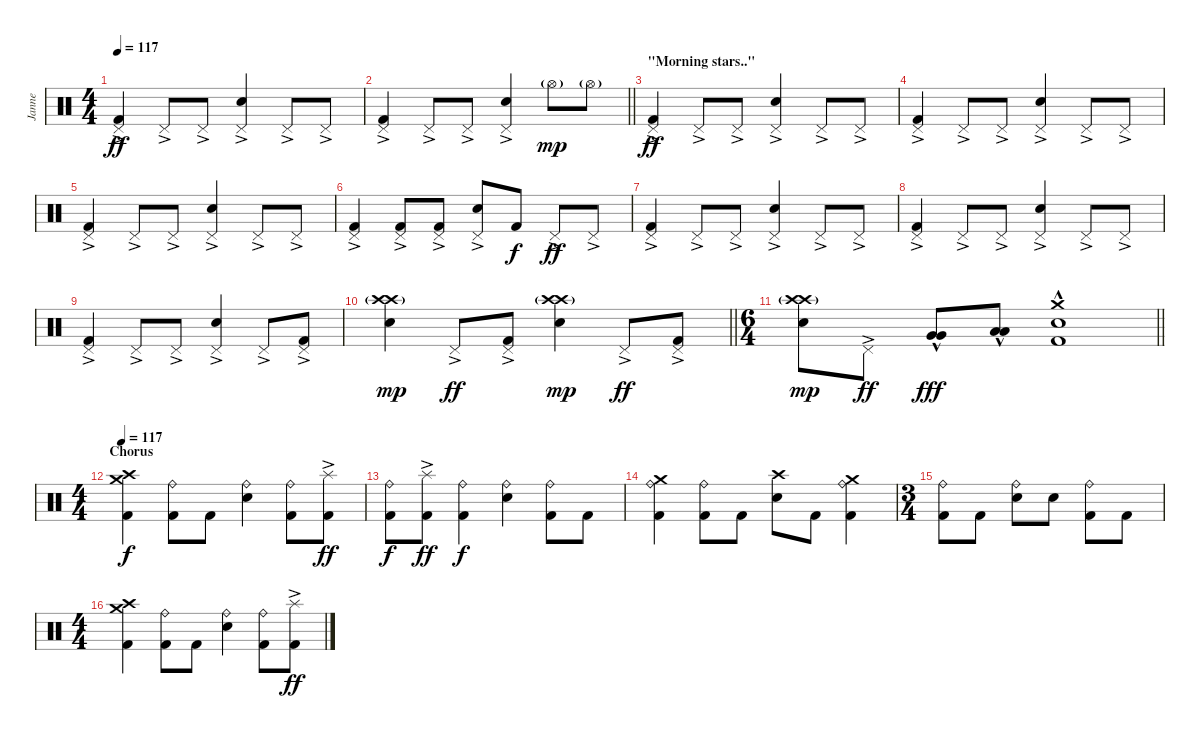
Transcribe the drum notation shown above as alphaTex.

\track ("Janne" "Janne") {instrument percussion}
\staff {score}
\articulation defaults
\ts (4 4)
\tempo 117
\clef neutral
\ks c
("Kick (hit) 2" "Pedal Hi-Hat (hit)"{ac}).4{dy ff} "Pedal Hi-Hat (hit)"{ac}.8 "Pedal Hi-Hat (hit)"{ac}.8 ("Snare (hit) 2" "Pedal Hi-Hat (hit)"{ac}).4 "Pedal Hi-Hat (hit)"{ac}.8 "Pedal Hi-Hat (hit)"{ac}.8 |
\barLineRight lightlight
("Kick (hit) 2" "Pedal Hi-Hat (hit)"{ac}).4 "Pedal Hi-Hat (hit)"{ac}.8 "Pedal Hi-Hat (hit)"{ac}.8 ("Snare (hit) 2" "Pedal Hi-Hat (hit)"{ac}).4 "Hi-Hat (open)"{g}.8{dy mp} "Hi-Hat (open)"{g}.8 |
\section ("" "\"Morning stars..\"")
("Kick (hit) 2" "Pedal Hi-Hat (hit)"{ac}).4{dy ff} "Pedal Hi-Hat (hit)"{ac}.8 "Pedal Hi-Hat (hit)"{ac}.8 ("Snare (hit) 2" "Pedal Hi-Hat (hit)"{ac}).4 "Pedal Hi-Hat (hit)"{ac}.8 "Pedal Hi-Hat (hit)"{ac}.8 |
("Kick (hit) 2" "Pedal Hi-Hat (hit)"{ac}).4 "Pedal Hi-Hat (hit)"{ac}.8 "Pedal Hi-Hat (hit)"{ac}.8 ("Snare (hit) 2" "Pedal Hi-Hat (hit)"{ac}).4 "Pedal Hi-Hat (hit)"{ac}.8 "Pedal Hi-Hat (hit)"{ac}.8 |
("Kick (hit) 2" "Pedal Hi-Hat (hit)"{ac}).4 "Pedal Hi-Hat (hit)"{ac}.8 "Pedal Hi-Hat (hit)"{ac}.8 ("Snare (hit) 2" "Pedal Hi-Hat (hit)"{ac}).4 "Pedal Hi-Hat (hit)"{ac}.8 "Pedal Hi-Hat (hit)"{ac}.8 |
("Kick (hit) 2" "Pedal Hi-Hat (hit)"{ac}).4 ("Kick (hit) 2" "Pedal Hi-Hat (hit)"{ac}).8 ("Kick (hit) 2" "Pedal Hi-Hat (hit)"{ac}).8 ("Snare (hit) 2" "Pedal Hi-Hat (hit)"{ac}).8 "Kick (hit) 2".8{dy f} "Pedal Hi-Hat (hit)"{ac}.8{dy ff} "Pedal Hi-Hat (hit)"{ac}.8 |
("Kick (hit) 2" "Pedal Hi-Hat (hit)"{ac}).4 "Pedal Hi-Hat (hit)"{ac}.8 "Pedal Hi-Hat (hit)"{ac}.8 ("Snare (hit) 2" "Pedal Hi-Hat (hit)"{ac}).4 "Pedal Hi-Hat (hit)"{ac}.8 "Pedal Hi-Hat (hit)"{ac}.8 |
("Kick (hit) 2" "Pedal Hi-Hat (hit)"{ac}).4 "Pedal Hi-Hat (hit)"{ac}.8 "Pedal Hi-Hat (hit)"{ac}.8 ("Snare (hit) 2" "Pedal Hi-Hat (hit)"{ac}).4 "Pedal Hi-Hat (hit)"{ac}.8 "Pedal Hi-Hat (hit)"{ac}.8 |
("Kick (hit) 2" "Pedal Hi-Hat (hit)"{ac}).4 "Pedal Hi-Hat (hit)"{ac}.8 "Pedal Hi-Hat (hit)"{ac}.8 ("Snare (hit) 2" "Pedal Hi-Hat (hit)"{ac}).4 "Pedal Hi-Hat (hit)"{ac}.8 ("Kick (hit) 2" "Pedal Hi-Hat (hit)"{ac}).8 |
\barLineRight lightlight
("Snare (hit) 2" "Crash high (hit)"{g} "Crash high (hit)"{g}).4{dy mp} "Pedal Hi-Hat (hit)"{ac}.8{dy ff} ("Kick (hit) 2" "Pedal Hi-Hat (hit)"{ac}).8 ("Snare (hit) 2" "Crash high (hit)"{g} "Crash high (hit)"{g}).4{dy mp} "Pedal Hi-Hat (hit)"{ac}.8{dy ff} ("Kick (hit) 2" "Pedal Hi-Hat (hit)"{ac}).8 |
\ts (6 4)
\section ("" "")
\barLineRight lightlight
("Snare (hit) 2" "Crash high (hit)"{g} "Crash high (hit)"{g}).8{dy mp} "Pedal Hi-Hat (hit)"{ac}.8{dy ff} ("Very Low Tom (hit)"{hac} "Very Low Tom (hit)"{hac}).8{dy fff} ("Low Floor Tom (hit)"{hac} "Low Floor Tom (hit)"{hac}).8 ("Kick (hit) 2" "Snare (hit) 2"{hac} "Crash medium (hit)").1 |
\ts (4 4)
\section ("" "Chorus")
\tempo 117
("Kick (hit) 2" "Crash medium (hit)" "Crash high (hit)").4{dy f} ("Kick (hit) 2" "Ride (bell)").8 "Kick (hit) 2".8 ("Snare (hit) 2" "Ride (bell)").4 ("Kick (hit) 2" "Ride (bell)").8 ("Kick (hit) 2" "Splash (hit)"{ac}).8{dy ff} |
("Kick (hit) 2" "Ride (bell)").8{dy f} ("Kick (hit) 2" "Splash (hit)"{ac}).8{dy ff} ("Kick (hit) 2" "Ride (bell)").4{dy f} ("Snare (hit) 2" "Ride (bell)").4 ("Kick (hit) 2" "Ride (bell)").8 "Kick (hit) 2".8 |
("Kick (hit) 2" "Ride (bell)" "Crash medium (hit)").4 ("Kick (hit) 2" "Ride (bell)").8 "Kick (hit) 2".8 ("Snare (hit) 2" "Crash high (hit)").8 "Kick (hit) 2".8 ("Kick (hit) 2" "Ride (bell)" "Crash medium (hit)").4 |
\ts (3 4)
("Kick (hit) 2" "Ride (bell)").8 "Kick (hit) 2".8 ("Snare (hit) 2" "Ride (bell)").8 "Snare (hit) 2".8 ("Kick (hit) 2" "Ride (bell)").8 "Kick (hit) 2".8 |
\ts (4 4)
("Kick (hit) 2" "Crash medium (hit)" "Crash high (hit)").4 ("Kick (hit) 2" "Ride (bell)").8 "Kick (hit) 2".8 ("Snare (hit) 2" "Ride (bell)").4 ("Kick (hit) 2" "Ride (bell)").8 ("Kick (hit) 2" "Splash (hit)"{ac}).8{dy ff}
